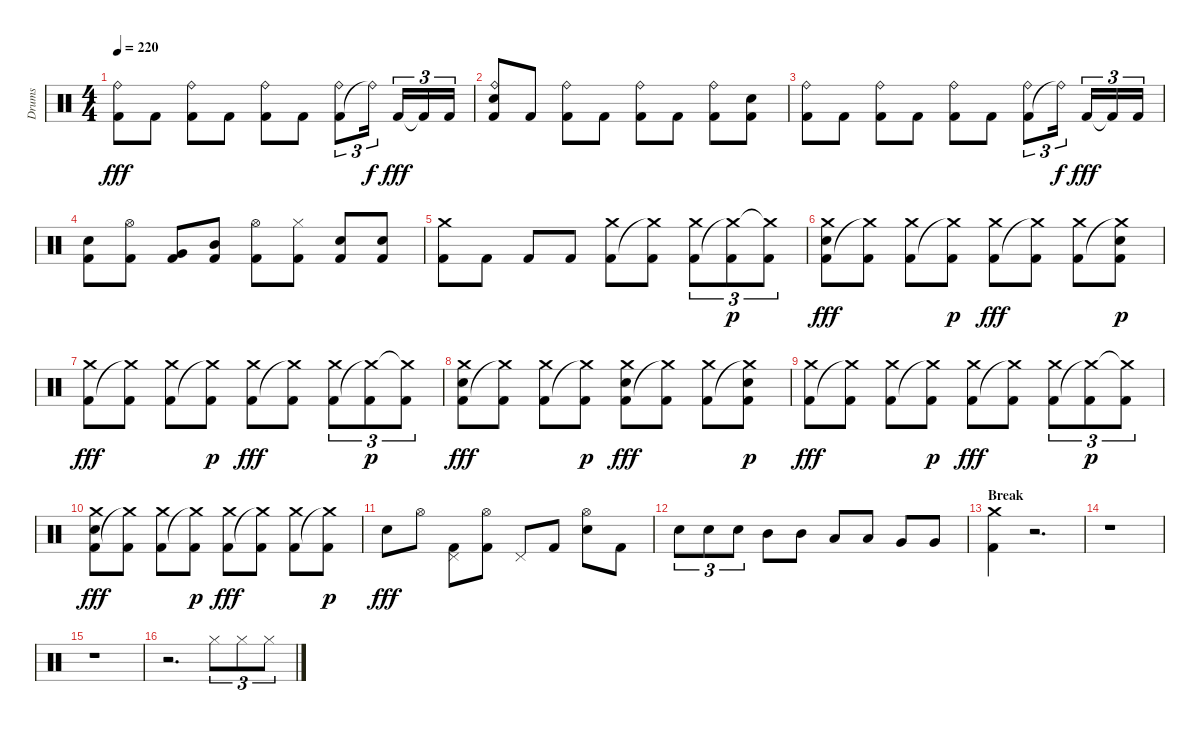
\track ("Drums" "Drums") {instrument percussion}
\staff {score}
\articulation defaults
\ts (4 4)
\tempo 220
\clef neutral
\ks aminor
("Kick (hit) 2" "Ride (bell)").8{dy fff} "Kick (hit) 2".8 ("Kick (hit) 2" "Ride (bell)").8 "Kick (hit) 2".8 ("Kick (hit) 2" "Ride (bell)").8 "Kick (hit) 2".8 ("Kick (hit) 2" "Ride (bell)").8{tu (3 2)} "Ride (bell)"{t}.16{tu (3 2) dy f} "Kick (hit) 2".16{tu (3 2) dy fff} "Kick (hit) 2"{t}.16{tu (3 2)} "Kick (hit) 2".16{tu (3 2)} |
("Kick (hit) 2" "Snare (hit) 2" "Ride (bell)").8 "Kick (hit) 2".8 ("Kick (hit) 2" "Ride (bell)").8 "Kick (hit) 2".8 ("Kick (hit) 2" "Ride (bell)").8 "Kick (hit) 2".8 ("Kick (hit) 2" "Ride (bell)").8 ("Kick (hit) 2" "Snare (hit) 2").8 |
("Kick (hit) 2" "Ride (bell)").8 "Kick (hit) 2".8 ("Kick (hit) 2" "Ride (bell)").8 "Kick (hit) 2".8 ("Kick (hit) 2" "Ride (bell)").8 "Kick (hit) 2".8 ("Kick (hit) 2" "Ride (bell)").8{tu (3 2)} "Ride (bell)"{t}.16{tu (3 2) dy f} "Kick (hit) 2".16{tu (3 2) dy fff} "Kick (hit) 2"{t}.16{tu (3 2)} "Kick (hit) 2".16{tu (3 2)} |
("Kick (hit) 2" "Snare (hit) 2").8 ("Kick (hit) 2" "Hi-Hat (open)").8 ("Kick (hit) 2" "Very Low Tom (hit)").8 ("Kick (hit) 2" "Mid Tom (hit)").8 ("Kick (hit) 2" "Hi-Hat (open)").8 ("Kick (hit) 2" "Hi-Hat (closed)").8 ("Kick (hit) 2" "Snare (hit) 2").8 ("Kick (hit) 2" "Snare (hit) 2").8 |
("Kick (hit) 2" "Crash medium (hit)").8 "Kick (hit) 2".8 "Kick (hit) 2".8 "Kick (hit) 2".8 ("Kick (hit) 2" "Crash medium (hit)").8 ("Crash medium (hit)"{t} "Kick (hit) 2").8 ("Kick (hit) 2" "Crash medium (hit)").8{tu (3 2)} ("Crash medium (hit)"{t} "Kick (hit) 2").8{tu (3 2) dy p} ("Crash medium (hit)"{t} "Kick (hit) 2").8{tu (3 2)} |
("Kick (hit) 2" "Snare (hit) 2" "Crash medium (hit)").8{dy fff} ("Crash medium (hit)"{t} "Kick (hit) 2").8 ("Kick (hit) 2" "Crash medium (hit)").8 ("Crash medium (hit)"{t} "Kick (hit) 2").8{dy p} ("Kick (hit) 2" "Crash medium (hit)").8{dy fff} ("Crash medium (hit)"{t} "Kick (hit) 2").8 ("Kick (hit) 2" "Crash medium (hit)").8 ("Crash medium (hit)"{t} "Kick (hit) 2" "Snare (hit) 2").8{dy p} |
("Kick (hit) 2" "Crash medium (hit)").8{dy fff} ("Crash medium (hit)"{t} "Kick (hit) 2").8 ("Kick (hit) 2" "Crash medium (hit)").8 ("Crash medium (hit)"{t} "Kick (hit) 2").8{dy p} ("Kick (hit) 2" "Crash medium (hit)").8{dy fff} ("Crash medium (hit)"{t} "Kick (hit) 2").8 ("Kick (hit) 2" "Crash medium (hit)").8{tu (3 2)} ("Crash medium (hit)"{t} "Kick (hit) 2").8{tu (3 2) dy p} ("Crash medium (hit)"{t} "Kick (hit) 2").8{tu (3 2)} |
("Kick (hit) 2" "Snare (hit) 2" "Crash medium (hit)").8{dy fff} ("Crash medium (hit)"{t} "Kick (hit) 2").8 ("Kick (hit) 2" "Crash medium (hit)").8 ("Crash medium (hit)"{t} "Kick (hit) 2").8{dy p} ("Kick (hit) 2" "Snare (hit) 2" "Crash medium (hit)").8{dy fff} ("Crash medium (hit)"{t} "Kick (hit) 2").8 ("Kick (hit) 2" "Crash medium (hit)").8 ("Crash medium (hit)"{t} "Kick (hit) 2" "Snare (hit) 2").8{dy p} |
("Kick (hit) 2" "Crash medium (hit)").8{dy fff} ("Crash medium (hit)"{t} "Kick (hit) 2").8 ("Kick (hit) 2" "Crash medium (hit)").8 ("Crash medium (hit)"{t} "Kick (hit) 2").8{dy p} ("Kick (hit) 2" "Crash medium (hit)").8{dy fff} ("Crash medium (hit)"{t} "Kick (hit) 2").8 ("Kick (hit) 2" "Crash medium (hit)").8{tu (3 2)} ("Crash medium (hit)"{t} "Kick (hit) 2").8{tu (3 2) dy p} ("Crash medium (hit)"{t} "Kick (hit) 2").8{tu (3 2)} |
("Kick (hit) 2" "Snare (hit) 2" "Crash medium (hit)").8{dy fff} ("Crash medium (hit)"{t} "Kick (hit) 2").8 ("Kick (hit) 2" "Crash medium (hit)").8 ("Crash medium (hit)"{t} "Kick (hit) 2").8{dy p} ("Kick (hit) 2" "Crash medium (hit)").8{dy fff} ("Crash medium (hit)"{t} "Kick (hit) 2").8 ("Kick (hit) 2" "Crash medium (hit)").8 ("Crash medium (hit)"{t} "Kick (hit) 2").8{dy p} |
"Snare (hit) 2".8{dy fff} "Hi-Hat (open)".8 ("Kick (hit) 2" "Pedal Hi-Hat (hit)").8 ("Kick (hit) 2" "Hi-Hat (open)").8 "Pedal Hi-Hat (hit)".8 "Kick (hit) 2".8 ("Snare (hit) 2" "Hi-Hat (open)").8 "Kick (hit) 2".8 |
"Snare (hit) 2".8{tu (3 2)} "Snare (hit) 2".8{tu (3 2)} "Snare (hit) 2".8{tu (3 2)} "Mid Tom (hit)".8 "Mid Tom (hit)".8 "Low Tom (hit)".8 "Low Tom (hit)".8 "Very Low Tom (hit)".8 "Very Low Tom (hit)".8 |
\section ("" "Break")
("Kick (hit) 2" "Crash medium (hit)").4 r.2{d} |
r.1 |
r.1 |
r.2{d} "Hi-Hat (closed)".8{tu (3 2)} "Hi-Hat (closed)".8{tu (3 2)} "Hi-Hat (closed)".8{tu (3 2)}
